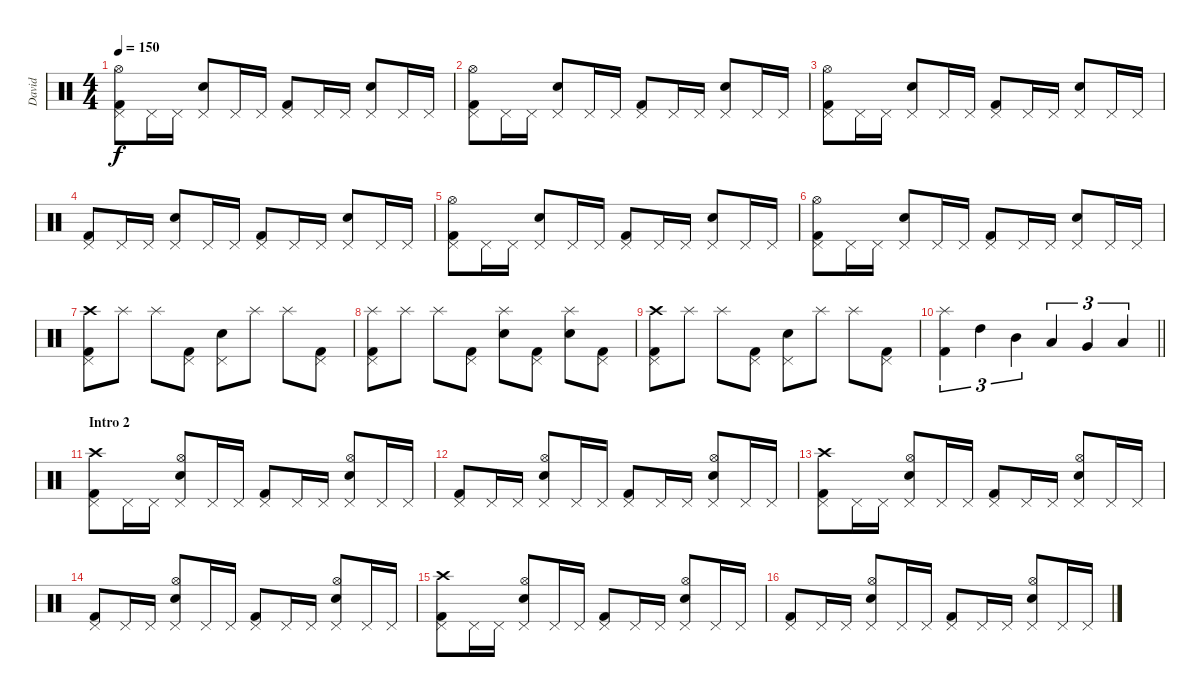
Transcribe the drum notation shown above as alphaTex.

\track ("David" "David") {instrument percussion}
\staff {score}
\articulation defaults
\ts (4 4)
\tempo 150
\clef neutral
\ks c
("Kick (hit) 2" "Pedal Hi-Hat (hit)" "Hi-Hat (open)").8{dy f} "Pedal Hi-Hat (hit)".16 "Pedal Hi-Hat (hit)".16 ("Snare (hit) 2" "Pedal Hi-Hat (hit)").8 "Pedal Hi-Hat (hit)".16 "Pedal Hi-Hat (hit)".16 ("Kick (hit) 2" "Pedal Hi-Hat (hit)").8 "Pedal Hi-Hat (hit)".16 "Pedal Hi-Hat (hit)".16 ("Snare (hit) 2" "Pedal Hi-Hat (hit)").8 "Pedal Hi-Hat (hit)".16 "Pedal Hi-Hat (hit)".16 |
("Kick (hit) 2" "Pedal Hi-Hat (hit)" "Hi-Hat (open)").8 "Pedal Hi-Hat (hit)".16 "Pedal Hi-Hat (hit)".16 ("Snare (hit) 2" "Pedal Hi-Hat (hit)").8 "Pedal Hi-Hat (hit)".16 "Pedal Hi-Hat (hit)".16 ("Kick (hit) 2" "Pedal Hi-Hat (hit)").8 "Pedal Hi-Hat (hit)".16 "Pedal Hi-Hat (hit)".16 ("Snare (hit) 2" "Pedal Hi-Hat (hit)").8 "Pedal Hi-Hat (hit)".16 "Pedal Hi-Hat (hit)".16 |
("Kick (hit) 2" "Pedal Hi-Hat (hit)" "Hi-Hat (open)").8 "Pedal Hi-Hat (hit)".16 "Pedal Hi-Hat (hit)".16 ("Snare (hit) 2" "Pedal Hi-Hat (hit)").8 "Pedal Hi-Hat (hit)".16 "Pedal Hi-Hat (hit)".16 ("Kick (hit) 2" "Pedal Hi-Hat (hit)").8 "Pedal Hi-Hat (hit)".16 "Pedal Hi-Hat (hit)".16 ("Snare (hit) 2" "Pedal Hi-Hat (hit)").8 "Pedal Hi-Hat (hit)".16 "Pedal Hi-Hat (hit)".16 |
("Kick (hit) 2" "Pedal Hi-Hat (hit)").8 "Pedal Hi-Hat (hit)".16 "Pedal Hi-Hat (hit)".16 ("Snare (hit) 2" "Pedal Hi-Hat (hit)").8 "Pedal Hi-Hat (hit)".16 "Pedal Hi-Hat (hit)".16 ("Kick (hit) 2" "Pedal Hi-Hat (hit)").8 "Pedal Hi-Hat (hit)".16 "Pedal Hi-Hat (hit)".16 ("Snare (hit) 2" "Pedal Hi-Hat (hit)").8 "Pedal Hi-Hat (hit)".16 "Pedal Hi-Hat (hit)".16 |
("Kick (hit) 2" "Pedal Hi-Hat (hit)" "Hi-Hat (open)").8 "Pedal Hi-Hat (hit)".16 "Pedal Hi-Hat (hit)".16 ("Snare (hit) 2" "Pedal Hi-Hat (hit)").8 "Pedal Hi-Hat (hit)".16 "Pedal Hi-Hat (hit)".16 ("Kick (hit) 2" "Pedal Hi-Hat (hit)").8 "Pedal Hi-Hat (hit)".16 "Pedal Hi-Hat (hit)".16 ("Snare (hit) 2" "Pedal Hi-Hat (hit)").8 "Pedal Hi-Hat (hit)".16 "Pedal Hi-Hat (hit)".16 |
("Kick (hit) 2" "Pedal Hi-Hat (hit)" "Hi-Hat (open)").8 "Pedal Hi-Hat (hit)".16 "Pedal Hi-Hat (hit)".16 ("Snare (hit) 2" "Pedal Hi-Hat (hit)").8 "Pedal Hi-Hat (hit)".16 "Pedal Hi-Hat (hit)".16 ("Kick (hit) 2" "Pedal Hi-Hat (hit)").8 "Pedal Hi-Hat (hit)".16 "Pedal Hi-Hat (hit)".16 ("Snare (hit) 2" "Pedal Hi-Hat (hit)").8 "Pedal Hi-Hat (hit)".16 "Pedal Hi-Hat (hit)".16 |
("Kick (hit) 2" "Pedal Hi-Hat (hit)" "Crash high (hit)").8 "Splash (hit)".8 "Splash (hit)".8 ("Kick (hit) 2" "Pedal Hi-Hat (hit)").8 ("Snare (hit) 2" "Pedal Hi-Hat (hit)").8 "Splash (hit)".8 "Splash (hit)".8 ("Kick (hit) 2" "Pedal Hi-Hat (hit)").8 |
("Kick (hit) 2" "Pedal Hi-Hat (hit)" "Splash (hit)").8 "Splash (hit)".8 "Splash (hit)".8 ("Kick (hit) 2" "Pedal Hi-Hat (hit)").8 ("Snare (hit) 2" "Splash (hit)").8 ("Kick (hit) 2" "Pedal Hi-Hat (hit)").8 ("Snare (hit) 2" "Splash (hit)").8 ("Kick (hit) 2" "Pedal Hi-Hat (hit)").8 |
("Kick (hit) 2" "Pedal Hi-Hat (hit)" "Crash high (hit)").8 "Splash (hit)".8 "Splash (hit)".8 ("Kick (hit) 2" "Pedal Hi-Hat (hit)").8 ("Snare (hit) 2" "Pedal Hi-Hat (hit)").8 "Splash (hit)".8 "Splash (hit)".8 ("Kick (hit) 2" "Pedal Hi-Hat (hit)").8 |
\barLineRight lightlight
("Kick (hit) 2" "Splash (hit)").4{tu (3 2)} "High Tom (hit)".4{tu (3 2)} "Mid Tom (hit)".4{tu (3 2)} "Low Tom (hit)".4{tu (3 2)} "Very Low Tom (hit)".4{tu (3 2)} "Low Floor Tom (hit)".4{tu (3 2)} |
\section ("" "Intro 2")
("Kick (hit) 2" "Pedal Hi-Hat (hit)" "Crash high (hit)").8 "Pedal Hi-Hat (hit)".16 "Pedal Hi-Hat (hit)".16 ("Snare (hit) 2" "Pedal Hi-Hat (hit)" "Hi-Hat (open)").8 "Pedal Hi-Hat (hit)".16 "Pedal Hi-Hat (hit)".16 ("Kick (hit) 2" "Pedal Hi-Hat (hit)").8 "Pedal Hi-Hat (hit)".16 "Pedal Hi-Hat (hit)".16 ("Snare (hit) 2" "Pedal Hi-Hat (hit)" "Hi-Hat (open)").8 "Pedal Hi-Hat (hit)".16 "Pedal Hi-Hat (hit)".16 |
("Kick (hit) 2" "Pedal Hi-Hat (hit)").8 "Pedal Hi-Hat (hit)".16 "Pedal Hi-Hat (hit)".16 ("Snare (hit) 2" "Pedal Hi-Hat (hit)" "Hi-Hat (open)").8 "Pedal Hi-Hat (hit)".16 "Pedal Hi-Hat (hit)".16 ("Kick (hit) 2" "Pedal Hi-Hat (hit)").8 "Pedal Hi-Hat (hit)".16 "Pedal Hi-Hat (hit)".16 ("Snare (hit) 2" "Pedal Hi-Hat (hit)" "Hi-Hat (open)").8 "Pedal Hi-Hat (hit)".16 "Pedal Hi-Hat (hit)".16 |
("Kick (hit) 2" "Pedal Hi-Hat (hit)" "Crash high (hit)").8 "Pedal Hi-Hat (hit)".16 "Pedal Hi-Hat (hit)".16 ("Snare (hit) 2" "Pedal Hi-Hat (hit)" "Hi-Hat (open)").8 "Pedal Hi-Hat (hit)".16 "Pedal Hi-Hat (hit)".16 ("Kick (hit) 2" "Pedal Hi-Hat (hit)").8 "Pedal Hi-Hat (hit)".16 "Pedal Hi-Hat (hit)".16 ("Snare (hit) 2" "Pedal Hi-Hat (hit)" "Hi-Hat (open)").8 "Pedal Hi-Hat (hit)".16 "Pedal Hi-Hat (hit)".16 |
("Kick (hit) 2" "Pedal Hi-Hat (hit)").8 "Pedal Hi-Hat (hit)".16 "Pedal Hi-Hat (hit)".16 ("Snare (hit) 2" "Pedal Hi-Hat (hit)" "Hi-Hat (open)").8 "Pedal Hi-Hat (hit)".16 "Pedal Hi-Hat (hit)".16 ("Kick (hit) 2" "Pedal Hi-Hat (hit)").8 "Pedal Hi-Hat (hit)".16 "Pedal Hi-Hat (hit)".16 ("Snare (hit) 2" "Pedal Hi-Hat (hit)" "Hi-Hat (open)").8 "Pedal Hi-Hat (hit)".16 "Pedal Hi-Hat (hit)".16 |
("Kick (hit) 2" "Pedal Hi-Hat (hit)" "Crash high (hit)").8 "Pedal Hi-Hat (hit)".16 "Pedal Hi-Hat (hit)".16 ("Snare (hit) 2" "Pedal Hi-Hat (hit)" "Hi-Hat (open)").8 "Pedal Hi-Hat (hit)".16 "Pedal Hi-Hat (hit)".16 ("Kick (hit) 2" "Pedal Hi-Hat (hit)").8 "Pedal Hi-Hat (hit)".16 "Pedal Hi-Hat (hit)".16 ("Snare (hit) 2" "Pedal Hi-Hat (hit)" "Hi-Hat (open)").8 "Pedal Hi-Hat (hit)".16 "Pedal Hi-Hat (hit)".16 |
("Kick (hit) 2" "Pedal Hi-Hat (hit)").8 "Pedal Hi-Hat (hit)".16 "Pedal Hi-Hat (hit)".16 ("Snare (hit) 2" "Pedal Hi-Hat (hit)" "Hi-Hat (open)").8 "Pedal Hi-Hat (hit)".16 "Pedal Hi-Hat (hit)".16 ("Kick (hit) 2" "Pedal Hi-Hat (hit)").8 "Pedal Hi-Hat (hit)".16 "Pedal Hi-Hat (hit)".16 ("Snare (hit) 2" "Pedal Hi-Hat (hit)" "Hi-Hat (open)").8 "Pedal Hi-Hat (hit)".16 "Pedal Hi-Hat (hit)".16
